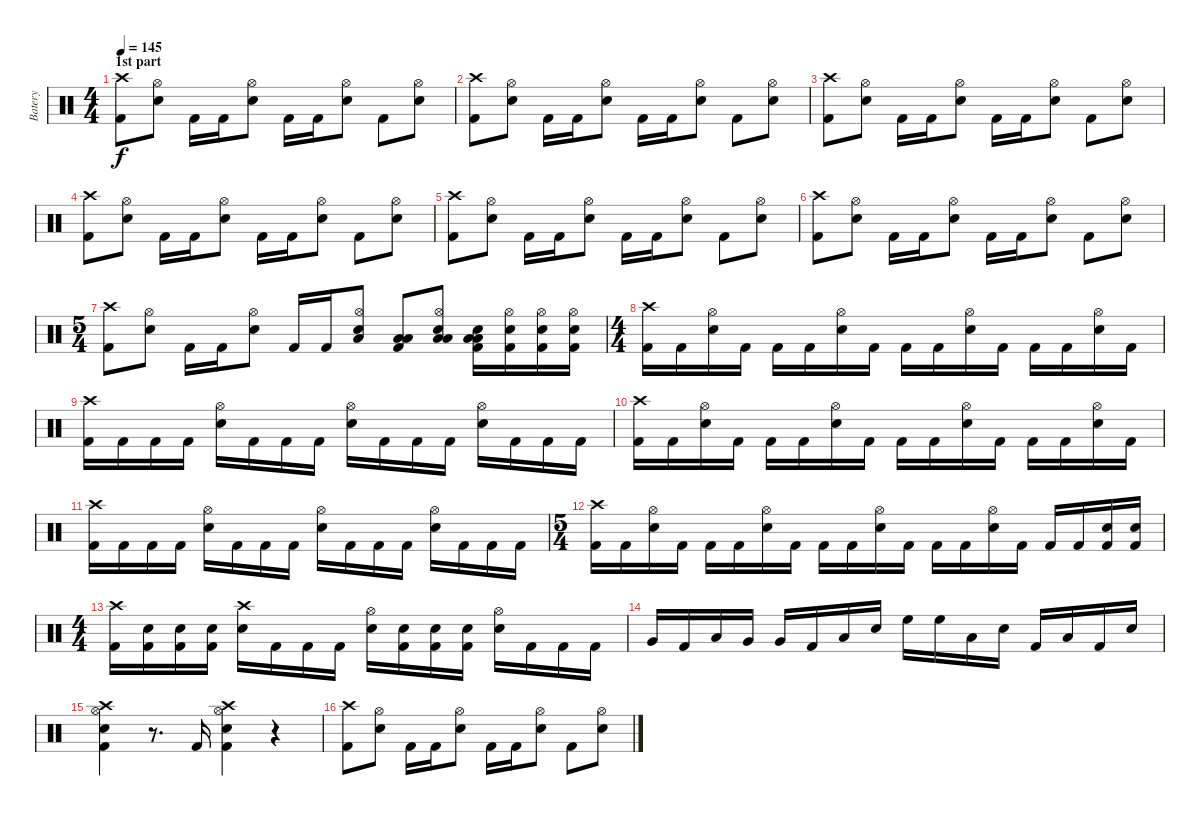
\track ("Batery" "Batery") {instrument percussion}
\staff {score}
\articulation defaults
\ts (4 4)
\section ("" "1st part")
\tempo 145
\clef neutral
\ks c
("Kick (hit) 2" "Crash high (hit)").8{dy f} ("Electric Snare (hit)" "Hi-Hat (open)").8 "Kick (hit) 2".16 "Kick (hit) 2".16 ("Electric Snare (hit)" "Hi-Hat (open)").8 "Kick (hit) 2".16 "Kick (hit) 2".16 ("Electric Snare (hit)" "Hi-Hat (open)").8 "Kick (hit) 2".8 ("Electric Snare (hit)" "Hi-Hat (open)").8 |
("Kick (hit) 2" "Crash high (hit)").8 ("Electric Snare (hit)" "Hi-Hat (open)").8 "Kick (hit) 2".16 "Kick (hit) 2".16 ("Electric Snare (hit)" "Hi-Hat (open)").8 "Kick (hit) 2".16 "Kick (hit) 2".16 ("Electric Snare (hit)" "Hi-Hat (open)").8 "Kick (hit) 2".8 ("Electric Snare (hit)" "Hi-Hat (open)").8 |
("Kick (hit) 2" "Crash high (hit)").8 ("Electric Snare (hit)" "Hi-Hat (open)").8 "Kick (hit) 2".16 "Kick (hit) 2".16 ("Electric Snare (hit)" "Hi-Hat (open)").8 "Kick (hit) 2".16 "Kick (hit) 2".16 ("Electric Snare (hit)" "Hi-Hat (open)").8 "Kick (hit) 2".8 ("Electric Snare (hit)" "Hi-Hat (open)").8 |
("Kick (hit) 2" "Crash high (hit)").8 ("Electric Snare (hit)" "Hi-Hat (open)").8 "Kick (hit) 2".16 "Kick (hit) 2".16 ("Electric Snare (hit)" "Hi-Hat (open)").8 "Kick (hit) 2".16 "Kick (hit) 2".16 ("Electric Snare (hit)" "Hi-Hat (open)").8 "Kick (hit) 2".8 ("Electric Snare (hit)" "Hi-Hat (open)").8 |
("Kick (hit) 2" "Crash high (hit)").8 ("Electric Snare (hit)" "Hi-Hat (open)").8 "Kick (hit) 2".16 "Kick (hit) 2".16 ("Electric Snare (hit)" "Hi-Hat (open)").8 "Kick (hit) 2".16 "Kick (hit) 2".16 ("Electric Snare (hit)" "Hi-Hat (open)").8 "Kick (hit) 2".8 ("Electric Snare (hit)" "Hi-Hat (open)").8 |
("Kick (hit) 2" "Crash high (hit)").8 ("Electric Snare (hit)" "Hi-Hat (open)").8 "Kick (hit) 2".16 "Kick (hit) 2".16 ("Electric Snare (hit)" "Hi-Hat (open)").8 "Kick (hit) 2".16 "Kick (hit) 2".16 ("Electric Snare (hit)" "Hi-Hat (open)").8 "Kick (hit) 2".8 ("Electric Snare (hit)" "Hi-Hat (open)").8 |
\ts (5 4)
("Kick (hit) 2" "Crash high (hit)").8 ("Electric Snare (hit)" "Hi-Hat (open)").8 "Kick (hit) 2".16 "Kick (hit) 2".16 ("Electric Snare (hit)" "Hi-Hat (open)").8 "Kick (hit) 2".16 "Kick (hit) 2".16 ("Electric Snare (hit)" "Hi-Hat (open)" "Low Tom (hit)").8 ("Kick (hit) 2" "Low Tom (hit)" "Low Tom (hit)").8 ("Electric Snare (hit)" "Hi-Hat (open)" "Low Tom (hit)" "Low Tom (hit)").8 ("Kick (hit) 2" "Electric Snare (hit)" "Low Tom (hit)" "Low Tom (hit)").16 ("Kick (hit) 2" "Electric Snare (hit)" "Hi-Hat (open)").16 ("Kick (hit) 2" "Electric Snare (hit)" "Hi-Hat (open)").16 ("Kick (hit) 2" "Electric Snare (hit)" "Hi-Hat (open)").16 |
\ts (4 4)
("Kick (hit) 2" "Crash high (hit)").16 "Kick (hit) 2".16 ("Electric Snare (hit)" "Hi-Hat (open)").16 "Kick (hit) 2".16 "Kick (hit) 2".16 "Kick (hit) 2".16 ("Electric Snare (hit)" "Hi-Hat (open)").16 "Kick (hit) 2".16 "Kick (hit) 2".16 "Kick (hit) 2".16 ("Electric Snare (hit)" "Hi-Hat (open)").16 "Kick (hit) 2".16 "Kick (hit) 2".16 "Kick (hit) 2".16 ("Electric Snare (hit)" "Hi-Hat (open)").16 "Kick (hit) 2".16 |
("Kick (hit) 2" "Crash high (hit)").16 "Kick (hit) 2".16 "Kick (hit) 2".16 "Kick (hit) 2".16 ("Electric Snare (hit)" "Hi-Hat (open)").16 "Kick (hit) 2".16 "Kick (hit) 2".16 "Kick (hit) 2".16 ("Electric Snare (hit)" "Hi-Hat (open)").16 "Kick (hit) 2".16 "Kick (hit) 2".16 "Kick (hit) 2".16 ("Electric Snare (hit)" "Hi-Hat (open)").16 "Kick (hit) 2".16 "Kick (hit) 2".16 "Kick (hit) 2".16 |
("Kick (hit) 2" "Crash high (hit)").16 "Kick (hit) 2".16 ("Electric Snare (hit)" "Hi-Hat (open)").16 "Kick (hit) 2".16 "Kick (hit) 2".16 "Kick (hit) 2".16 ("Electric Snare (hit)" "Hi-Hat (open)").16 "Kick (hit) 2".16 "Kick (hit) 2".16 "Kick (hit) 2".16 ("Electric Snare (hit)" "Hi-Hat (open)").16 "Kick (hit) 2".16 "Kick (hit) 2".16 "Kick (hit) 2".16 ("Electric Snare (hit)" "Hi-Hat (open)").16 "Kick (hit) 2".16 |
("Kick (hit) 2" "Crash high (hit)").16 "Kick (hit) 2".16 "Kick (hit) 2".16 "Kick (hit) 2".16 ("Electric Snare (hit)" "Hi-Hat (open)").16 "Kick (hit) 2".16 "Kick (hit) 2".16 "Kick (hit) 2".16 ("Electric Snare (hit)" "Hi-Hat (open)").16 "Kick (hit) 2".16 "Kick (hit) 2".16 "Kick (hit) 2".16 ("Electric Snare (hit)" "Hi-Hat (open)").16 "Kick (hit) 2".16 "Kick (hit) 2".16 "Kick (hit) 2".16 |
\ts (5 4)
("Kick (hit) 2" "Crash high (hit)").16 "Kick (hit) 2".16 ("Electric Snare (hit)" "Hi-Hat (open)").16 "Kick (hit) 2".16 "Kick (hit) 2".16 "Kick (hit) 2".16 ("Electric Snare (hit)" "Hi-Hat (open)").16 "Kick (hit) 2".16 "Kick (hit) 2".16 "Kick (hit) 2".16 ("Electric Snare (hit)" "Hi-Hat (open)").16 "Kick (hit) 2".16 "Kick (hit) 2".16 "Kick (hit) 2".16 ("Electric Snare (hit)" "Hi-Hat (open)").16 "Kick (hit) 2".16 "Kick (hit) 2".16 "Kick (hit) 2".16 ("Kick (hit) 2" "Electric Snare (hit)").16 ("Kick (hit) 2" "Electric Snare (hit)").16 |
\ts (4 4)
("Kick (hit) 2" "Crash high (hit)").16 ("Kick (hit) 2" "Electric Snare (hit)").16 ("Kick (hit) 2" "Electric Snare (hit)").16 ("Kick (hit) 2" "Electric Snare (hit)").16 ("Electric Snare (hit)" "Crash high (hit)").16 "Kick (hit) 2".16 "Kick (hit) 2".16 "Kick (hit) 2".16 ("Electric Snare (hit)" "Hi-Hat (open)").16 ("Kick (hit) 2" "Electric Snare (hit)").16 ("Kick (hit) 2" "Electric Snare (hit)").16 ("Kick (hit) 2" "Electric Snare (hit)").16 ("Electric Snare (hit)" "Hi-Hat (open)").16 "Kick (hit) 2".16 "Kick (hit) 2".16 "Kick (hit) 2".16 |
"Very Low Tom (hit)".16 "Kick (hit) 2".16 "Low Tom (hit)".16 "Very Low Tom (hit)".16 "Very Low Tom (hit)".16 "Kick (hit) 2".16 "Low Tom (hit)".16 "Electric Snare (hit)".16 "High Floor Tom (hit)".16 "High Floor Tom (hit)".16 "Low Tom (hit)".16 "Electric Snare (hit)".16 "Kick (hit) 2".16 "Low Tom (hit)".16 "Kick (hit) 2".16 "Electric Snare (hit)".16 |
("Kick (hit) 2" "Electric Snare (hit)" "Hi-Hat (open)" "Crash high (hit)").4 r.8{d} "Kick (hit) 2".16 ("Kick (hit) 2" "Electric Snare (hit)" "Hi-Hat (open)" "Crash high (hit)").4 r.4 |
("Kick (hit) 2" "Crash high (hit)").8 ("Electric Snare (hit)" "Hi-Hat (open)").8 "Kick (hit) 2".16 "Kick (hit) 2".16 ("Electric Snare (hit)" "Hi-Hat (open)").8 "Kick (hit) 2".16 "Kick (hit) 2".16 ("Electric Snare (hit)" "Hi-Hat (open)").8 "Kick (hit) 2".8 ("Electric Snare (hit)" "Hi-Hat (open)").8
